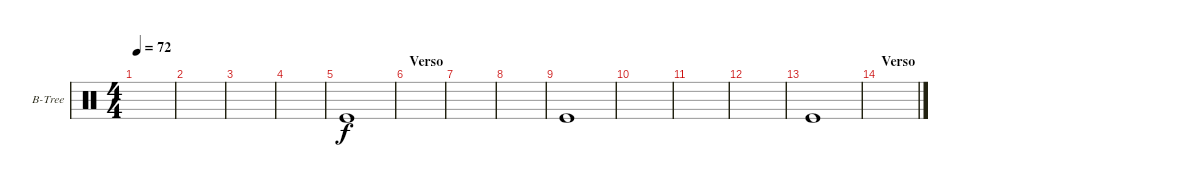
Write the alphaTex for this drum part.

\defaultSystemsLayout 4
\bracketExtendMode groupsimilarinstruments
\firstSystemTrackNameOrientation horizontal
\otherSystemsTrackNameOrientation horizontal
\track ("Bell Tree" "B-Tree") {instrument percussion}
\staff {score}
\articulation defaults
\ts (4 4)
\tempo 72
\clef neutral
\ks c
|
|
|
|
"Kick (hit)".1 |
\section ("" "Verso")
|
|
|
"Kick (hit)".1 |
|
|
|
"Kick (hit)".1 |
\section ("" "Verso")
